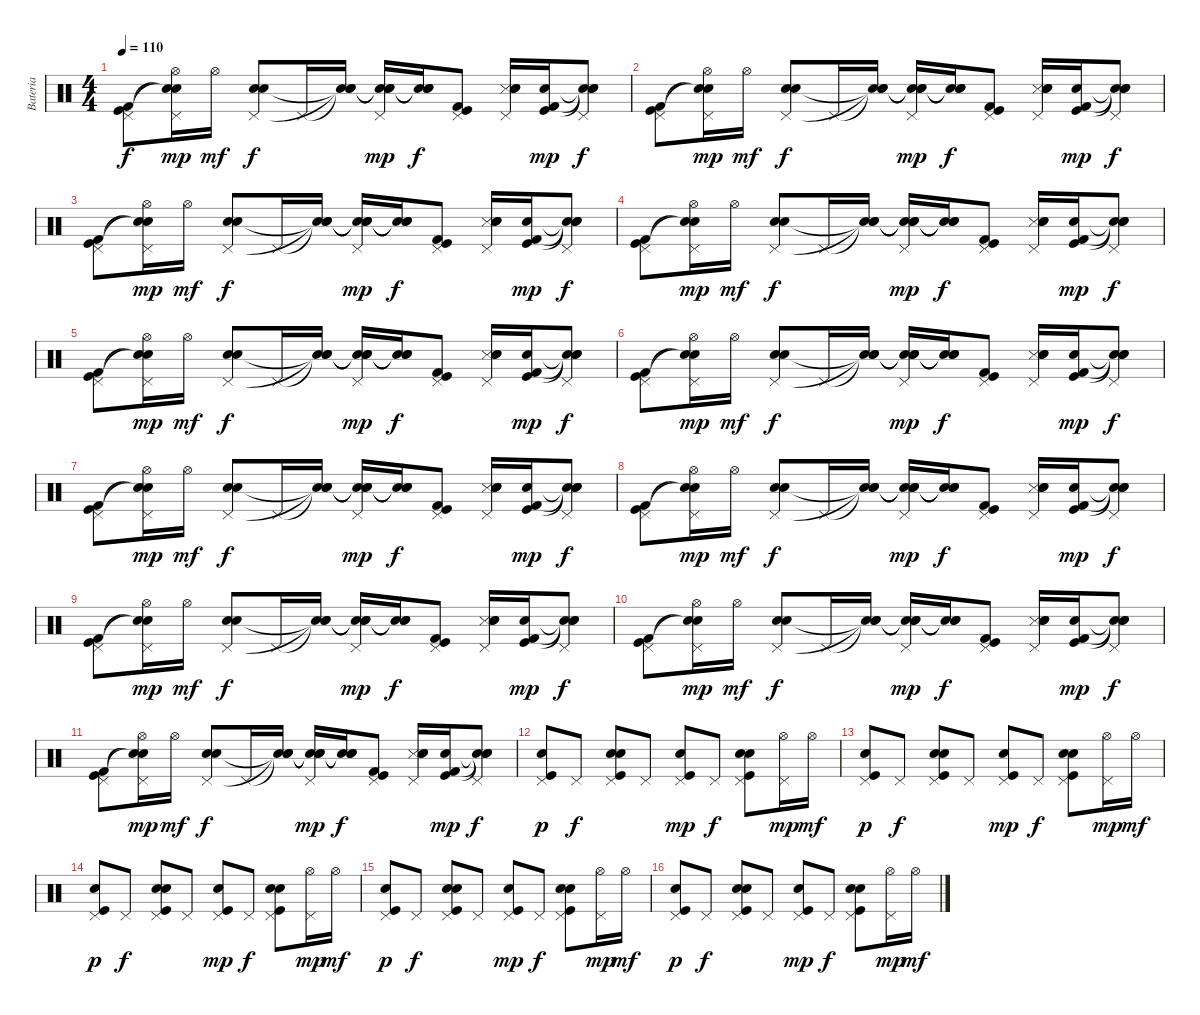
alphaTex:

\track ("Bateria" "Bateria") {instrument percussion}
\staff {score}
\articulation defaults
\ts (4 4)
\tempo 110
\clef neutral
\ks c
("Kick (hit)" "Kick (hit) 2" "Pedal Hi-Hat (hit)").8{dy f} ("Snare (hit)"{t} "Snare (hit)"{t} "Hi-Hat (open)" "Pedal Hi-Hat (hit)").16{dy mp} "Hi-Hat (open)".16{dy mf} ("Snare (hit) 2" "Electric Snare (hit)" "Pedal Hi-Hat (hit)").8{dy f} "Pedal Hi-Hat (hit)".16 ("Snare (hit)"{t} "Snare (hit)"{t} "Snare (hit)"{t}).16 ("Snare (hit)"{t} "Snare (hit)"{t} "Snare (hit)"{t} "Pedal Hi-Hat (hit)").16{dy mp} ("Snare (hit)"{t} "Snare (hit)"{t} "Snare (hit)"{t}).16{dy f} ("Kick (hit) 2" "Kick (hit)" "Pedal Hi-Hat (hit)").8 ("Snare (side stick) 3" "Electric Snare (hit)" "Snare (hit) 2" "Pedal Hi-Hat (hit)").16 ("Kick (hit) 2" "Snare (hit) 2" "Kick (hit)").16{dy mp} ("Snare (hit)"{t} "Snare (hit)"{t} "Snare (hit)"{t} "Pedal Hi-Hat (hit)").8{dy f} |
("Kick (hit)" "Kick (hit) 2" "Pedal Hi-Hat (hit)").8 ("Snare (hit)"{t} "Snare (hit)"{t} "Hi-Hat (open)" "Pedal Hi-Hat (hit)").16{dy mp} "Hi-Hat (open)".16{dy mf} ("Snare (hit) 2" "Electric Snare (hit)" "Pedal Hi-Hat (hit)").8{dy f} "Pedal Hi-Hat (hit)".16 ("Snare (hit)"{t} "Snare (hit)"{t} "Snare (hit)"{t}).16 ("Snare (hit)"{t} "Snare (hit)"{t} "Snare (hit)"{t} "Pedal Hi-Hat (hit)").16{dy mp} ("Snare (hit)"{t} "Snare (hit)"{t} "Snare (hit)"{t}).16{dy f} ("Kick (hit) 2" "Kick (hit)" "Pedal Hi-Hat (hit)").8 ("Snare (side stick) 3" "Electric Snare (hit)" "Snare (hit) 2" "Pedal Hi-Hat (hit)").16 ("Kick (hit) 2" "Snare (hit) 2" "Kick (hit)").16{dy mp} ("Snare (hit)"{t} "Snare (hit)"{t} "Snare (hit)"{t} "Pedal Hi-Hat (hit)").8{dy f} |
("Kick (hit)" "Kick (hit) 2" "Pedal Hi-Hat (hit)").8 ("Snare (hit)"{t} "Snare (hit)"{t} "Hi-Hat (open)" "Pedal Hi-Hat (hit)").16{dy mp} "Hi-Hat (open)".16{dy mf} ("Snare (hit) 2" "Electric Snare (hit)" "Pedal Hi-Hat (hit)").8{dy f} "Pedal Hi-Hat (hit)".16 ("Snare (hit)"{t} "Snare (hit)"{t} "Snare (hit)"{t}).16 ("Snare (hit)"{t} "Snare (hit)"{t} "Snare (hit)"{t} "Pedal Hi-Hat (hit)").16{dy mp} ("Snare (hit)"{t} "Snare (hit)"{t} "Snare (hit)"{t}).16{dy f} ("Kick (hit) 2" "Kick (hit)" "Pedal Hi-Hat (hit)").8 ("Snare (side stick) 3" "Electric Snare (hit)" "Snare (hit) 2" "Pedal Hi-Hat (hit)").16 ("Kick (hit) 2" "Snare (hit) 2" "Kick (hit)").16{dy mp} ("Snare (hit)"{t} "Snare (hit)"{t} "Snare (hit)"{t} "Pedal Hi-Hat (hit)").8{dy f} |
("Kick (hit)" "Kick (hit) 2" "Pedal Hi-Hat (hit)").8 ("Snare (hit)"{t} "Snare (hit)"{t} "Hi-Hat (open)" "Pedal Hi-Hat (hit)").16{dy mp} "Hi-Hat (open)".16{dy mf} ("Snare (hit) 2" "Electric Snare (hit)" "Pedal Hi-Hat (hit)").8{dy f} "Pedal Hi-Hat (hit)".16 ("Snare (hit)"{t} "Snare (hit)"{t} "Snare (hit)"{t}).16 ("Snare (hit)"{t} "Snare (hit)"{t} "Snare (hit)"{t} "Pedal Hi-Hat (hit)").16{dy mp} ("Snare (hit)"{t} "Snare (hit)"{t} "Snare (hit)"{t}).16{dy f} ("Kick (hit) 2" "Kick (hit)" "Pedal Hi-Hat (hit)").8 ("Snare (side stick) 3" "Electric Snare (hit)" "Snare (hit) 2" "Pedal Hi-Hat (hit)").16 ("Kick (hit) 2" "Snare (hit) 2" "Kick (hit)").16{dy mp} ("Snare (hit)"{t} "Snare (hit)"{t} "Snare (hit)"{t} "Pedal Hi-Hat (hit)").8{dy f} |
("Kick (hit)" "Kick (hit) 2" "Pedal Hi-Hat (hit)").8 ("Snare (hit)"{t} "Snare (hit)"{t} "Hi-Hat (open)" "Pedal Hi-Hat (hit)").16{dy mp} "Hi-Hat (open)".16{dy mf} ("Snare (hit) 2" "Electric Snare (hit)" "Pedal Hi-Hat (hit)").8{dy f} "Pedal Hi-Hat (hit)".16 ("Snare (hit)"{t} "Snare (hit)"{t} "Snare (hit)"{t}).16 ("Snare (hit)"{t} "Snare (hit)"{t} "Snare (hit)"{t} "Pedal Hi-Hat (hit)").16{dy mp} ("Snare (hit)"{t} "Snare (hit)"{t} "Snare (hit)"{t}).16{dy f} ("Kick (hit) 2" "Kick (hit)" "Pedal Hi-Hat (hit)").8 ("Snare (side stick) 3" "Electric Snare (hit)" "Snare (hit) 2" "Pedal Hi-Hat (hit)").16 ("Kick (hit) 2" "Snare (hit) 2" "Kick (hit)").16{dy mp} ("Snare (hit)"{t} "Snare (hit)"{t} "Snare (hit)"{t} "Pedal Hi-Hat (hit)").8{dy f} |
("Kick (hit)" "Kick (hit) 2" "Pedal Hi-Hat (hit)").8 ("Snare (hit)"{t} "Snare (hit)"{t} "Hi-Hat (open)" "Pedal Hi-Hat (hit)").16{dy mp} "Hi-Hat (open)".16{dy mf} ("Snare (hit) 2" "Electric Snare (hit)" "Pedal Hi-Hat (hit)").8{dy f} "Pedal Hi-Hat (hit)".16 ("Snare (hit)"{t} "Snare (hit)"{t} "Snare (hit)"{t}).16 ("Snare (hit)"{t} "Snare (hit)"{t} "Snare (hit)"{t} "Pedal Hi-Hat (hit)").16{dy mp} ("Snare (hit)"{t} "Snare (hit)"{t} "Snare (hit)"{t}).16{dy f} ("Kick (hit) 2" "Kick (hit)" "Pedal Hi-Hat (hit)").8 ("Snare (side stick) 3" "Electric Snare (hit)" "Snare (hit) 2" "Pedal Hi-Hat (hit)").16 ("Kick (hit) 2" "Snare (hit) 2" "Kick (hit)").16{dy mp} ("Snare (hit)"{t} "Snare (hit)"{t} "Snare (hit)"{t} "Pedal Hi-Hat (hit)").8{dy f} |
("Kick (hit)" "Kick (hit) 2" "Pedal Hi-Hat (hit)").8 ("Snare (hit)"{t} "Snare (hit)"{t} "Hi-Hat (open)" "Pedal Hi-Hat (hit)").16{dy mp} "Hi-Hat (open)".16{dy mf} ("Snare (hit) 2" "Electric Snare (hit)" "Pedal Hi-Hat (hit)").8{dy f} "Pedal Hi-Hat (hit)".16 ("Snare (hit)"{t} "Snare (hit)"{t} "Snare (hit)"{t}).16 ("Snare (hit)"{t} "Snare (hit)"{t} "Snare (hit)"{t} "Pedal Hi-Hat (hit)").16{dy mp} ("Snare (hit)"{t} "Snare (hit)"{t} "Snare (hit)"{t}).16{dy f} ("Kick (hit) 2" "Kick (hit)" "Pedal Hi-Hat (hit)").8 ("Snare (side stick) 3" "Electric Snare (hit)" "Snare (hit) 2" "Pedal Hi-Hat (hit)").16 ("Kick (hit) 2" "Snare (hit) 2" "Kick (hit)").16{dy mp} ("Snare (hit)"{t} "Snare (hit)"{t} "Snare (hit)"{t} "Pedal Hi-Hat (hit)").8{dy f} |
("Kick (hit)" "Kick (hit) 2" "Pedal Hi-Hat (hit)").8 ("Snare (hit)"{t} "Snare (hit)"{t} "Hi-Hat (open)" "Pedal Hi-Hat (hit)").16{dy mp} "Hi-Hat (open)".16{dy mf} ("Snare (hit) 2" "Electric Snare (hit)" "Pedal Hi-Hat (hit)").8{dy f} "Pedal Hi-Hat (hit)".16 ("Snare (hit)"{t} "Snare (hit)"{t} "Snare (hit)"{t}).16 ("Snare (hit)"{t} "Snare (hit)"{t} "Snare (hit)"{t} "Pedal Hi-Hat (hit)").16{dy mp} ("Snare (hit)"{t} "Snare (hit)"{t} "Snare (hit)"{t}).16{dy f} ("Kick (hit) 2" "Kick (hit)" "Pedal Hi-Hat (hit)").8 ("Snare (side stick) 3" "Electric Snare (hit)" "Snare (hit) 2" "Pedal Hi-Hat (hit)").16 ("Kick (hit) 2" "Snare (hit) 2" "Kick (hit)").16{dy mp} ("Snare (hit)"{t} "Snare (hit)"{t} "Snare (hit)"{t} "Pedal Hi-Hat (hit)").8{dy f} |
("Kick (hit)" "Kick (hit) 2" "Pedal Hi-Hat (hit)").8 ("Snare (hit)"{t} "Snare (hit)"{t} "Hi-Hat (open)" "Pedal Hi-Hat (hit)").16{dy mp} "Hi-Hat (open)".16{dy mf} ("Snare (hit) 2" "Electric Snare (hit)" "Pedal Hi-Hat (hit)").8{dy f} "Pedal Hi-Hat (hit)".16 ("Snare (hit)"{t} "Snare (hit)"{t} "Snare (hit)"{t}).16 ("Snare (hit)"{t} "Snare (hit)"{t} "Snare (hit)"{t} "Pedal Hi-Hat (hit)").16{dy mp} ("Snare (hit)"{t} "Snare (hit)"{t} "Snare (hit)"{t}).16{dy f} ("Kick (hit) 2" "Kick (hit)" "Pedal Hi-Hat (hit)").8 ("Snare (side stick) 3" "Electric Snare (hit)" "Snare (hit) 2" "Pedal Hi-Hat (hit)").16 ("Kick (hit) 2" "Snare (hit) 2" "Kick (hit)").16{dy mp} ("Snare (hit)"{t} "Snare (hit)"{t} "Snare (hit)"{t} "Pedal Hi-Hat (hit)").8{dy f} |
("Kick (hit)" "Kick (hit) 2" "Pedal Hi-Hat (hit)").8 ("Snare (hit)"{t} "Snare (hit)"{t} "Hi-Hat (open)" "Pedal Hi-Hat (hit)").16{dy mp} "Hi-Hat (open)".16{dy mf} ("Snare (hit) 2" "Electric Snare (hit)" "Pedal Hi-Hat (hit)").8{dy f} "Pedal Hi-Hat (hit)".16 ("Snare (hit)"{t} "Snare (hit)"{t} "Snare (hit)"{t}).16 ("Snare (hit)"{t} "Snare (hit)"{t} "Snare (hit)"{t} "Pedal Hi-Hat (hit)").16{dy mp} ("Snare (hit)"{t} "Snare (hit)"{t} "Snare (hit)"{t}).16{dy f} ("Kick (hit) 2" "Kick (hit)" "Pedal Hi-Hat (hit)").8 ("Snare (side stick) 3" "Electric Snare (hit)" "Snare (hit) 2" "Pedal Hi-Hat (hit)").16 ("Kick (hit) 2" "Snare (hit) 2" "Kick (hit)").16{dy mp} ("Snare (hit)"{t} "Snare (hit)"{t} "Snare (hit)"{t} "Pedal Hi-Hat (hit)").8{dy f} |
("Kick (hit)" "Kick (hit) 2" "Pedal Hi-Hat (hit)").8 ("Snare (hit)"{t} "Snare (hit)"{t} "Hi-Hat (open)" "Pedal Hi-Hat (hit)").16{dy mp} "Hi-Hat (open)".16{dy mf} ("Snare (hit) 2" "Electric Snare (hit)" "Pedal Hi-Hat (hit)").8{dy f} "Pedal Hi-Hat (hit)".16 ("Snare (hit)"{t} "Snare (hit)"{t} "Snare (hit)"{t}).16 ("Snare (hit)"{t} "Snare (hit)"{t} "Snare (hit)"{t} "Pedal Hi-Hat (hit)").16{dy mp} ("Snare (hit)"{t} "Snare (hit)"{t} "Snare (hit)"{t}).16{dy f} ("Kick (hit) 2" "Kick (hit)" "Pedal Hi-Hat (hit)").8 ("Snare (side stick) 3" "Electric Snare (hit)" "Snare (hit) 2" "Pedal Hi-Hat (hit)").16 ("Kick (hit) 2" "Snare (hit) 2" "Kick (hit)").16{dy mp} ("Snare (hit)"{t} "Snare (hit)"{t} "Snare (hit)"{t} "Pedal Hi-Hat (hit)").8{dy f} |
("Kick (hit)" "Electric Snare (hit)" "Pedal Hi-Hat (hit)").8{dy p} "Pedal Hi-Hat (hit)".8{dy f} ("Kick (hit)" "Electric Snare (hit)" "Snare (hit) 2" "Pedal Hi-Hat (hit)").8 "Pedal Hi-Hat (hit)".8 ("Kick (hit)" "Electric Snare (hit)" "Pedal Hi-Hat (hit)").8{dy mp} "Pedal Hi-Hat (hit)".8{dy f} ("Kick (hit)" "Electric Snare (hit)" "Snare (hit) 2" "Pedal Hi-Hat (hit)").8 ("Pedal Hi-Hat (hit)" "Hi-Hat (open)").16{dy mp} "Hi-Hat (open)".16{dy mf} |
("Kick (hit)" "Electric Snare (hit)" "Pedal Hi-Hat (hit)").8{dy p} "Pedal Hi-Hat (hit)".8{dy f} ("Kick (hit)" "Electric Snare (hit)" "Snare (hit) 2" "Pedal Hi-Hat (hit)").8 "Pedal Hi-Hat (hit)".8 ("Kick (hit)" "Electric Snare (hit)" "Pedal Hi-Hat (hit)").8{dy mp} "Pedal Hi-Hat (hit)".8{dy f} ("Kick (hit)" "Electric Snare (hit)" "Snare (hit) 2" "Pedal Hi-Hat (hit)").8 ("Pedal Hi-Hat (hit)" "Hi-Hat (open)").16{dy mp} "Hi-Hat (open)".16{dy mf} |
("Kick (hit)" "Electric Snare (hit)" "Pedal Hi-Hat (hit)").8{dy p} "Pedal Hi-Hat (hit)".8{dy f} ("Kick (hit)" "Electric Snare (hit)" "Snare (hit) 2" "Pedal Hi-Hat (hit)").8 "Pedal Hi-Hat (hit)".8 ("Kick (hit)" "Electric Snare (hit)" "Pedal Hi-Hat (hit)").8{dy mp} "Pedal Hi-Hat (hit)".8{dy f} ("Kick (hit)" "Electric Snare (hit)" "Snare (hit) 2" "Pedal Hi-Hat (hit)").8 ("Pedal Hi-Hat (hit)" "Hi-Hat (open)").16{dy mp} "Hi-Hat (open)".16{dy mf} |
("Kick (hit)" "Electric Snare (hit)" "Pedal Hi-Hat (hit)").8{dy p} "Pedal Hi-Hat (hit)".8{dy f} ("Kick (hit)" "Electric Snare (hit)" "Snare (hit) 2" "Pedal Hi-Hat (hit)").8 "Pedal Hi-Hat (hit)".8 ("Kick (hit)" "Electric Snare (hit)" "Pedal Hi-Hat (hit)").8{dy mp} "Pedal Hi-Hat (hit)".8{dy f} ("Kick (hit)" "Electric Snare (hit)" "Snare (hit) 2" "Pedal Hi-Hat (hit)").8 ("Pedal Hi-Hat (hit)" "Hi-Hat (open)").16{dy mp} "Hi-Hat (open)".16{dy mf} |
("Kick (hit)" "Electric Snare (hit)" "Pedal Hi-Hat (hit)").8{dy p} "Pedal Hi-Hat (hit)".8{dy f} ("Kick (hit)" "Electric Snare (hit)" "Snare (hit) 2" "Pedal Hi-Hat (hit)").8 "Pedal Hi-Hat (hit)".8 ("Kick (hit)" "Electric Snare (hit)" "Pedal Hi-Hat (hit)").8{dy mp} "Pedal Hi-Hat (hit)".8{dy f} ("Kick (hit)" "Electric Snare (hit)" "Snare (hit) 2" "Pedal Hi-Hat (hit)").8 ("Pedal Hi-Hat (hit)" "Hi-Hat (open)").16{dy mp} "Hi-Hat (open)".16{dy mf}
